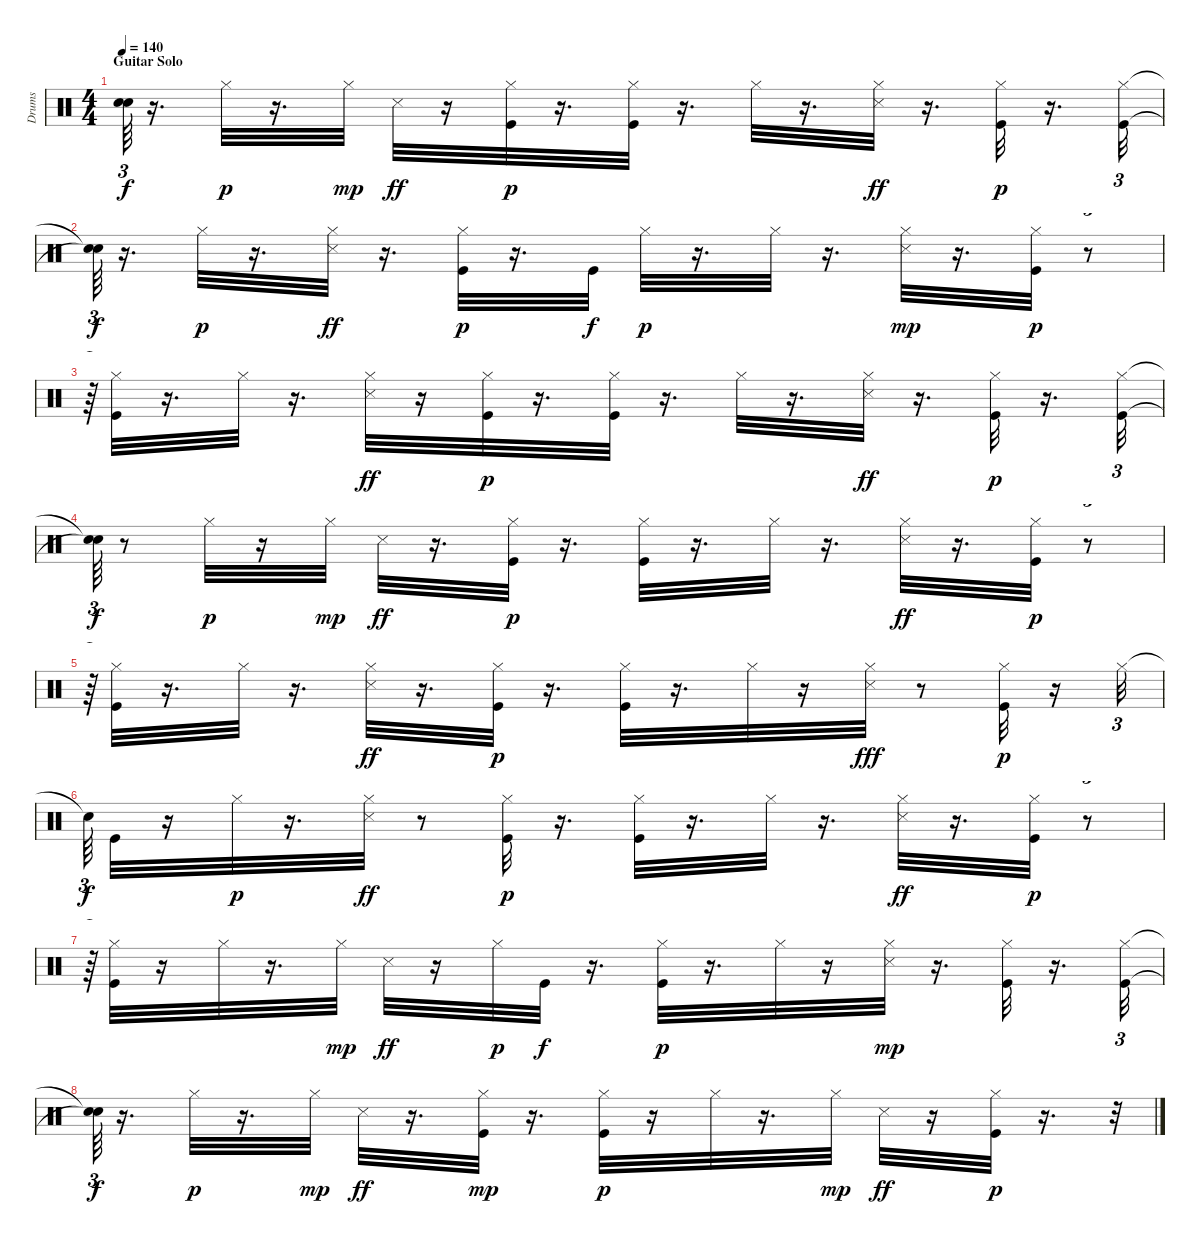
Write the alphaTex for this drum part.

\track ("Drums" "Drums") {instrument percussion}
\staff {score}
\articulation defaults
\ts (4 4)
\section ("" "Guitar Solo")
\tempo 140
\clef neutral
\ks c
("Snare (hit)"{t} "Snare (hit)"{t}).64{tu (3 2) dy f} r.16{d} "Hi-Hat (closed)".32{dy p} r.16{d} "Hi-Hat (closed)".32{dy mp} "Snare (side stick) 3".32{dy ff} r.16 ("Hi-Hat (closed)" "Kick (hit)").32{dy p} r.16{d} ("Kick (hit)" "Hi-Hat (closed)").32 r.16{d} "Hi-Hat (closed)".32 r.16{d} ("Hi-Hat (closed)" "Snare (side stick) 3").32{dy ff} r.16{d} ("Kick (hit)" "Hi-Hat (closed)").32{dy p} r.16{d} ("Kick (hit)" "Hi-Hat (closed)").32{tu (3 2)} |
("Snare (hit)"{t} "Snare (hit)"{t}).64{tu (3 2) dy f} r.16{d} "Hi-Hat (closed)".32{dy p} r.16{d} ("Hi-Hat (closed)" "Snare (side stick) 3").32{dy ff} r.16{d} ("Kick (hit)" "Hi-Hat (closed)").32{dy p} r.16{d} "Kick (hit)".32{dy f} "Hi-Hat (closed)".32{dy p} r.16{d} "Hi-Hat (closed)".32 r.16{d} ("Snare (side stick) 3" "Hi-Hat (closed)").32{dy mp} r.16{d} ("Kick (hit)" "Hi-Hat (closed)").32{dy p} r.8{tu (3 2)} |
r.64{tu (3 2)} ("Kick (hit)" "Hi-Hat (closed)").32 r.16{d} "Hi-Hat (closed)".32 r.16{d} ("Hi-Hat (closed)" "Snare (side stick) 3").32{dy ff} r.16 ("Hi-Hat (closed)" "Kick (hit)").32{dy p} r.16{d} ("Hi-Hat (closed)" "Kick (hit)").32 r.16{d} "Hi-Hat (closed)".32 r.16{d} ("Hi-Hat (closed)" "Snare (side stick) 3").32{dy ff} r.16{d} ("Kick (hit)" "Hi-Hat (closed)").32{dy p} r.16{d} ("Kick (hit)" "Hi-Hat (closed)").32{tu (3 2)} |
("Snare (hit)"{t} "Snare (hit)"{t}).64{tu (3 2) dy f} r.8 "Hi-Hat (closed)".32{dy p} r.16 "Hi-Hat (closed)".32{dy mp} "Snare (side stick) 3".32{dy ff} r.16{d} ("Hi-Hat (closed)" "Kick (hit)").32{dy p} r.16{d} ("Hi-Hat (closed)" "Kick (hit)").32 r.16{d} "Hi-Hat (closed)".32 r.16{d} ("Hi-Hat (closed)" "Snare (side stick) 3").32{dy ff} r.16{d} ("Kick (hit)" "Hi-Hat (closed)").32{dy p} r.8{tu (3 2)} |
r.64{tu (3 2)} ("Hi-Hat (closed)" "Kick (hit)").32 r.16{d} "Hi-Hat (closed)".32 r.16{d} ("Hi-Hat (closed)" "Snare (side stick) 3").32{dy ff} r.16{d} ("Hi-Hat (closed)" "Kick (hit)").32{dy p} r.16{d} ("Hi-Hat (closed)" "Kick (hit)").32 r.16{d} "Hi-Hat (closed)".32 r.16 ("Hi-Hat (closed)" "Snare (side stick) 3").32{dy fff} r.8 ("Hi-Hat (closed)" "Kick (hit)").32{dy p} r.16 "Hi-Hat (closed)".32{tu (3 2)} |
"Snare (hit)"{t}.64{tu (3 2) dy f} "Kick (hit)".32 r.16 "Hi-Hat (closed)".32{dy p} r.16{d} ("Hi-Hat (closed)" "Snare (side stick) 3").32{dy ff} r.8 ("Hi-Hat (closed)" "Kick (hit)").32{dy p} r.16{d} ("Kick (hit)" "Hi-Hat (closed)").32 r.16{d} "Hi-Hat (closed)".32 r.16{d} ("Hi-Hat (closed)" "Snare (side stick) 3").32{dy ff} r.16{d} ("Kick (hit)" "Hi-Hat (closed)").32{dy p} r.8{tu (3 2)} |
r.64{tu (3 2)} ("Kick (hit)" "Hi-Hat (closed)").32 r.16 "Hi-Hat (closed)".32 r.16{d} "Hi-Hat (closed)".32{dy mp} "Snare (side stick) 3".32{dy ff} r.16 "Hi-Hat (closed)".32{dy p} "Kick (hit)".32{dy f} r.16{d} ("Kick (hit)" "Hi-Hat (closed)").32{dy p} r.16{d} "Hi-Hat (closed)".32 r.16 ("Snare (side stick) 3" "Hi-Hat (closed)").32{dy mp} r.16{d} ("Hi-Hat (closed)" "Kick (hit)").32 r.16{d} ("Kick (hit)" "Hi-Hat (closed)").32{tu (3 2)} |
("Snare (hit)"{t} "Snare (hit)"{t}).64{tu (3 2) dy f} r.16{d} "Hi-Hat (closed)".32{dy p} r.16{d} "Hi-Hat (closed)".32{dy mp} "Snare (side stick) 3".32{dy ff} r.16{d} ("Hi-Hat (closed)" "Kick (hit)").32{dy mp} r.16{d} ("Hi-Hat (closed)" "Kick (hit)").32{dy p} r.16 "Hi-Hat (closed)".32 r.16{d} "Hi-Hat (closed)".32{dy mp} "Snare (side stick) 3".32{dy ff} r.16 ("Hi-Hat (closed)" "Kick (hit)").32{dy p} r.16{d} r.32{tu (3 2)}
